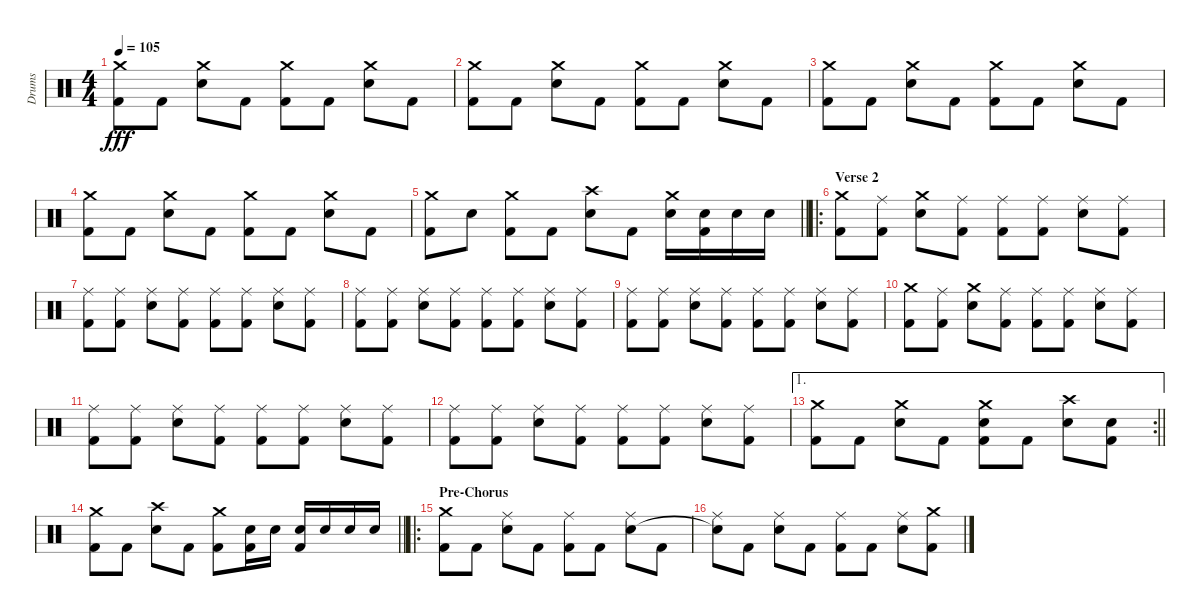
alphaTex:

\track ("Drums" "Drums") {instrument percussion}
\staff {score}
\articulation defaults
\ts (4 4)
\tempo 105
\clef neutral
\ks c
("Crash medium (hit)" "Kick (hit) 2").8{dy fff} "Kick (hit) 2".8 ("Crash medium (hit)" "Electric Snare (hit)").8 "Kick (hit) 2".8 ("Crash medium (hit)" "Kick (hit) 2").8 "Kick (hit) 2".8 ("Crash medium (hit)" "Electric Snare (hit)").8 "Kick (hit) 2".8 |
("Crash medium (hit)" "Kick (hit) 2").8 "Kick (hit) 2".8 ("Crash medium (hit)" "Electric Snare (hit)").8 "Kick (hit) 2".8 ("Crash medium (hit)" "Kick (hit) 2").8 "Kick (hit) 2".8 ("Crash medium (hit)" "Electric Snare (hit)").8 "Kick (hit) 2".8 |
("Crash medium (hit)" "Kick (hit) 2").8 "Kick (hit) 2".8 ("Crash medium (hit)" "Electric Snare (hit)").8 "Kick (hit) 2".8 ("Crash medium (hit)" "Kick (hit) 2").8 "Kick (hit) 2".8 ("Crash medium (hit)" "Electric Snare (hit)").8 "Kick (hit) 2".8 |
("Crash medium (hit)" "Kick (hit) 2").8 "Kick (hit) 2".8 ("Crash medium (hit)" "Electric Snare (hit)").8 "Kick (hit) 2".8 ("Crash medium (hit)" "Kick (hit) 2").8 "Kick (hit) 2".8 ("Crash medium (hit)" "Electric Snare (hit)").8 "Kick (hit) 2".8 |
\barLineRight lightlight
("Crash medium (hit)" "Kick (hit) 2").8 "Electric Snare (hit)".8 ("Crash medium (hit)" "Kick (hit) 2").8 "Kick (hit) 2".8 ("Crash high (hit)" "Electric Snare (hit)").8 "Kick (hit) 2".8 ("Crash medium (hit)" "Electric Snare (hit)").16 ("Electric Snare (hit)" "Kick (hit) 2").16 "Electric Snare (hit)".16 "Electric Snare (hit)".16 |
\ro
\section ("" "Verse 2")
("Crash medium (hit)" "Kick (hit) 2").8 ("Ride (middle)" "Kick (hit) 2").8 ("Crash medium (hit)" "Electric Snare (hit)").8 ("Ride (middle)" "Kick (hit) 2").8 ("Ride (middle)" "Kick (hit) 2").8 ("Ride (middle)" "Kick (hit) 2").8 ("Ride (middle)" "Electric Snare (hit)").8 ("Ride (middle)" "Kick (hit) 2").8 |
("Ride (middle)" "Kick (hit) 2").8 ("Ride (middle)" "Kick (hit) 2").8 ("Ride (middle)" "Electric Snare (hit)").8 ("Ride (middle)" "Kick (hit) 2").8 ("Ride (middle)" "Kick (hit) 2").8 ("Ride (middle)" "Kick (hit) 2").8 ("Ride (middle)" "Electric Snare (hit)").8 ("Ride (middle)" "Kick (hit) 2").8 |
("Ride (middle)" "Kick (hit) 2").8 ("Ride (middle)" "Kick (hit) 2").8 ("Ride (middle)" "Electric Snare (hit)").8 ("Ride (middle)" "Kick (hit) 2").8 ("Ride (middle)" "Kick (hit) 2").8 ("Ride (middle)" "Kick (hit) 2").8 ("Ride (middle)" "Electric Snare (hit)").8 ("Ride (middle)" "Kick (hit) 2").8 |
("Ride (middle)" "Kick (hit) 2").8 ("Ride (middle)" "Kick (hit) 2").8 ("Ride (middle)" "Electric Snare (hit)").8 ("Ride (middle)" "Kick (hit) 2").8 ("Ride (middle)" "Kick (hit) 2").8 ("Ride (middle)" "Kick (hit) 2").8 ("Ride (middle)" "Electric Snare (hit)").8 ("Ride (middle)" "Kick (hit) 2").8 |
("Crash medium (hit)" "Kick (hit) 2").8 ("Ride (middle)" "Kick (hit) 2").8 ("Crash medium (hit)" "Electric Snare (hit)").8 ("Ride (middle)" "Kick (hit) 2").8 ("Ride (middle)" "Kick (hit) 2").8 ("Ride (middle)" "Kick (hit) 2").8 ("Ride (middle)" "Electric Snare (hit)").8 ("Ride (middle)" "Kick (hit) 2").8 |
("Ride (middle)" "Kick (hit) 2").8 ("Ride (middle)" "Kick (hit) 2").8 ("Ride (middle)" "Electric Snare (hit)").8 ("Ride (middle)" "Kick (hit) 2").8 ("Ride (middle)" "Kick (hit) 2").8 ("Ride (middle)" "Kick (hit) 2").8 ("Ride (middle)" "Electric Snare (hit)").8 ("Ride (middle)" "Kick (hit) 2").8 |
("Ride (middle)" "Kick (hit) 2").8 ("Ride (middle)" "Kick (hit) 2").8 ("Ride (middle)" "Electric Snare (hit)").8 ("Ride (middle)" "Kick (hit) 2").8 ("Ride (middle)" "Kick (hit) 2").8 ("Ride (middle)" "Kick (hit) 2").8 ("Ride (middle)" "Electric Snare (hit)").8 ("Ride (middle)" "Kick (hit) 2").8 |
\ae 1
\rc 2
\barLineRight lightlight
("Crash medium (hit)" "Kick (hit) 2").8 "Kick (hit) 2".8 ("Crash medium (hit)" "Electric Snare (hit)").8 "Kick (hit) 2".8 ("Crash medium (hit)" "Electric Snare (hit)" "Kick (hit) 2").8 "Kick (hit) 2".8 ("Crash high (hit)" "Electric Snare (hit)").8 ("Electric Snare (hit)" "Kick (hit) 2").8 |
\barLineRight lightlight
("Crash medium (hit)" "Kick (hit) 2").8 "Kick (hit) 2".8 ("Crash high (hit)" "Electric Snare (hit)").8 "Kick (hit) 2".8 ("Crash medium (hit)" "Kick (hit) 2").8 ("Electric Snare (hit)" "Kick (hit) 2").16 "Electric Snare (hit)".16 ("Electric Snare (hit)" "Kick (hit) 2").16 "Electric Snare (hit)".16 "Electric Snare (hit)".16 "Electric Snare (hit)".16 |
\ro
\section ("" "Pre-Chorus")
("Crash medium (hit)" "Kick (hit) 2").8 "Kick (hit) 2".8 ("Ride (middle)" "Electric Snare (hit)").8 "Kick (hit) 2".8 ("Ride (middle)" "Kick (hit) 2").8 "Kick (hit) 2".8 ("Ride (middle)" "Electric Snare (hit)").8 "Kick (hit) 2".8 |
("Ride (middle)" "Snare (hit)"{t}).8 "Kick (hit) 2".8 ("Ride (middle)" "Electric Snare (hit)").8 "Kick (hit) 2".8 ("Ride (middle)" "Kick (hit) 2").8 "Kick (hit) 2".8 ("Ride (middle)" "Electric Snare (hit)").8 ("Crash medium (hit)" "Kick (hit) 2").8
